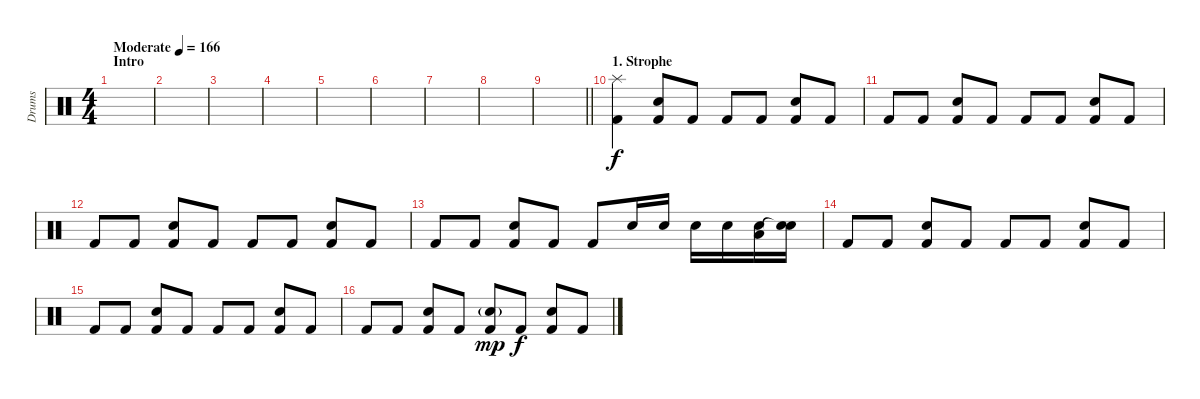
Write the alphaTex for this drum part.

\track ("Drums" "Drums") {instrument percussion}
\staff {score}
\articulation defaults
\ts (4 4)
\section ("" "Intro")
\tempo (166 "Moderate")
\clef neutral
\ks c
|
|
|
|
|
|
|
|
\barLineRight lightlight
|
\section ("" "1. Strophe")
("Splash (hit)" "Kick (hit) 2").4 ("Kick (hit) 2" "Electric Snare (hit)").8 "Kick (hit) 2".8 "Kick (hit) 2".8 "Kick (hit) 2".8 ("Kick (hit) 2" "Electric Snare (hit)").8 "Kick (hit) 2".8 |
"Kick (hit) 2".8 "Kick (hit) 2".8 ("Kick (hit) 2" "Electric Snare (hit)").8 "Kick (hit) 2".8 "Kick (hit) 2".8 "Kick (hit) 2".8 ("Kick (hit) 2" "Electric Snare (hit)").8 "Kick (hit) 2".8 |
"Kick (hit) 2".8 "Kick (hit) 2".8 ("Kick (hit) 2" "Electric Snare (hit)").8 "Kick (hit) 2".8 "Kick (hit) 2".8 "Kick (hit) 2".8 ("Kick (hit) 2" "Electric Snare (hit)").8 "Kick (hit) 2".8 |
"Kick (hit) 2".8 "Kick (hit) 2".8 ("Kick (hit) 2" "Electric Snare (hit)").8 "Kick (hit) 2".8 "Kick (hit) 2".8 "Electric Snare (hit)".16 "Electric Snare (hit)".16 "Electric Snare (hit)".16 "Electric Snare (hit)".16 ("Low Floor Tom (hit)" "Electric Snare (hit)").16 ("Snare (hit)"{t} "Electric Snare (hit)").16 |
"Kick (hit) 2".8 "Kick (hit) 2".8 ("Kick (hit) 2" "Electric Snare (hit)").8 "Kick (hit) 2".8 "Kick (hit) 2".8 "Kick (hit) 2".8 ("Kick (hit) 2" "Electric Snare (hit)").8 "Kick (hit) 2".8 |
"Kick (hit) 2".8 "Kick (hit) 2".8 ("Kick (hit) 2" "Electric Snare (hit)").8 "Kick (hit) 2".8 "Kick (hit) 2".8 "Kick (hit) 2".8 ("Kick (hit) 2" "Electric Snare (hit)").8 "Kick (hit) 2".8 |
"Kick (hit) 2".8 "Kick (hit) 2".8 ("Kick (hit) 2" "Electric Snare (hit)").8 "Kick (hit) 2".8 ("Electric Snare (hit)"{g} "Kick (hit) 2").8{dy mp} "Kick (hit) 2".8{dy f} ("Kick (hit) 2" "Electric Snare (hit)").8 "Kick (hit) 2".8
